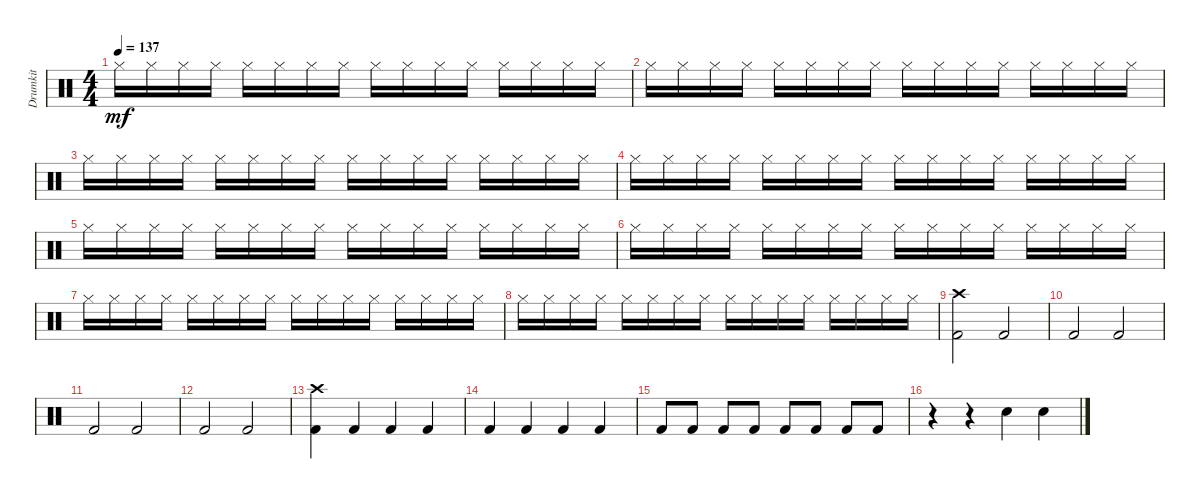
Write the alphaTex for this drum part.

\track ("Drumkit" "Drumkit") {instrument percussion}
\staff {score}
\articulation defaults
\ts (4 4)
\tempo 137
\clef neutral
\ks c "Hi-Hat (closed)".16{dy mf} "Hi-Hat (closed)".16 "Hi-Hat (closed)".16 "Hi-Hat (closed)".16 "Hi-Hat (closed)".16 "Hi-Hat (closed)".16 "Hi-Hat (closed)".16 "Hi-Hat (closed)".16 "Hi-Hat (closed)".16 "Hi-Hat (closed)".16 "Hi-Hat (closed)".16 "Hi-Hat (closed)".16 "Hi-Hat (closed)".16 "Hi-Hat (closed)".16 "Hi-Hat (closed)".16 "Hi-Hat (closed)".16
|
"Hi-Hat (closed)".16 "Hi-Hat (closed)".16 "Hi-Hat (closed)".16 "Hi-Hat (closed)".16 "Hi-Hat (closed)".16 "Hi-Hat (closed)".16 "Hi-Hat (closed)".16 "Hi-Hat (closed)".16 "Hi-Hat (closed)".16 "Hi-Hat (closed)".16 "Hi-Hat (closed)".16 "Hi-Hat (closed)".16 "Hi-Hat (closed)".16 "Hi-Hat (closed)".16 "Hi-Hat (closed)".16 "Hi-Hat (closed)".16 |
"Hi-Hat (closed)".16 "Hi-Hat (closed)".16 "Hi-Hat (closed)".16 "Hi-Hat (closed)".16 "Hi-Hat (closed)".16 "Hi-Hat (closed)".16 "Hi-Hat (closed)".16 "Hi-Hat (closed)".16 "Hi-Hat (closed)".16 "Hi-Hat (closed)".16 "Hi-Hat (closed)".16 "Hi-Hat (closed)".16 "Hi-Hat (closed)".16 "Hi-Hat (closed)".16 "Hi-Hat (closed)".16 "Hi-Hat (closed)".16 |
"Hi-Hat (closed)".16 "Hi-Hat (closed)".16 "Hi-Hat (closed)".16 "Hi-Hat (closed)".16 "Hi-Hat (closed)".16 "Hi-Hat (closed)".16 "Hi-Hat (closed)".16 "Hi-Hat (closed)".16 "Hi-Hat (closed)".16 "Hi-Hat (closed)".16 "Hi-Hat (closed)".16 "Hi-Hat (closed)".16 "Hi-Hat (closed)".16 "Hi-Hat (closed)".16 "Hi-Hat (closed)".16 "Hi-Hat (closed)".16 |
"Hi-Hat (closed)".16 "Hi-Hat (closed)".16 "Hi-Hat (closed)".16 "Hi-Hat (closed)".16 "Hi-Hat (closed)".16 "Hi-Hat (closed)".16 "Hi-Hat (closed)".16 "Hi-Hat (closed)".16 "Hi-Hat (closed)".16 "Hi-Hat (closed)".16 "Hi-Hat (closed)".16 "Hi-Hat (closed)".16 "Hi-Hat (closed)".16 "Hi-Hat (closed)".16 "Hi-Hat (closed)".16 "Hi-Hat (closed)".16 |
"Hi-Hat (closed)".16 "Hi-Hat (closed)".16 "Hi-Hat (closed)".16 "Hi-Hat (closed)".16 "Hi-Hat (closed)".16 "Hi-Hat (closed)".16 "Hi-Hat (closed)".16 "Hi-Hat (closed)".16 "Hi-Hat (closed)".16 "Hi-Hat (closed)".16 "Hi-Hat (closed)".16 "Hi-Hat (closed)".16 "Hi-Hat (closed)".16 "Hi-Hat (closed)".16 "Hi-Hat (closed)".16 "Hi-Hat (closed)".16 |
"Hi-Hat (closed)".16 "Hi-Hat (closed)".16 "Hi-Hat (closed)".16 "Hi-Hat (closed)".16 "Hi-Hat (closed)".16 "Hi-Hat (closed)".16 "Hi-Hat (closed)".16 "Hi-Hat (closed)".16 "Hi-Hat (closed)".16 "Hi-Hat (closed)".16 "Hi-Hat (closed)".16 "Hi-Hat (closed)".16 "Hi-Hat (closed)".16 "Hi-Hat (closed)".16 "Hi-Hat (closed)".16 "Hi-Hat (closed)".16 |
"Hi-Hat (closed)".16 "Hi-Hat (closed)".16 "Hi-Hat (closed)".16 "Hi-Hat (closed)".16 "Hi-Hat (closed)".16 "Hi-Hat (closed)".16 "Hi-Hat (closed)".16 "Hi-Hat (closed)".16 "Hi-Hat (closed)".16 "Hi-Hat (closed)".16 "Hi-Hat (closed)".16 "Hi-Hat (closed)".16 "Hi-Hat (closed)".16 "Hi-Hat (closed)".16 "Hi-Hat (closed)".16 "Hi-Hat (closed)".16 |
("Kick (hit) 2" "Crash high (hit)").2 "Kick (hit) 2".2 |
"Kick (hit) 2".2 "Kick (hit) 2".2 |
"Kick (hit) 2".2 "Kick (hit) 2".2 |
"Kick (hit) 2".2 "Kick (hit) 2".2 |
("Kick (hit) 2" "Crash high (hit)").4 "Kick (hit) 2".4 "Kick (hit) 2".4 "Kick (hit) 2".4 |
"Kick (hit) 2".4 "Kick (hit) 2".4 "Kick (hit) 2".4 "Kick (hit) 2".4 |
"Kick (hit) 2".8 "Kick (hit) 2".8 "Kick (hit) 2".8 "Kick (hit) 2".8 "Kick (hit) 2".8 "Kick (hit) 2".8 "Kick (hit) 2".8 "Kick (hit) 2".8 |
r.4 r.4 "Snare (hit) 2".4 "Snare (hit) 2".4
